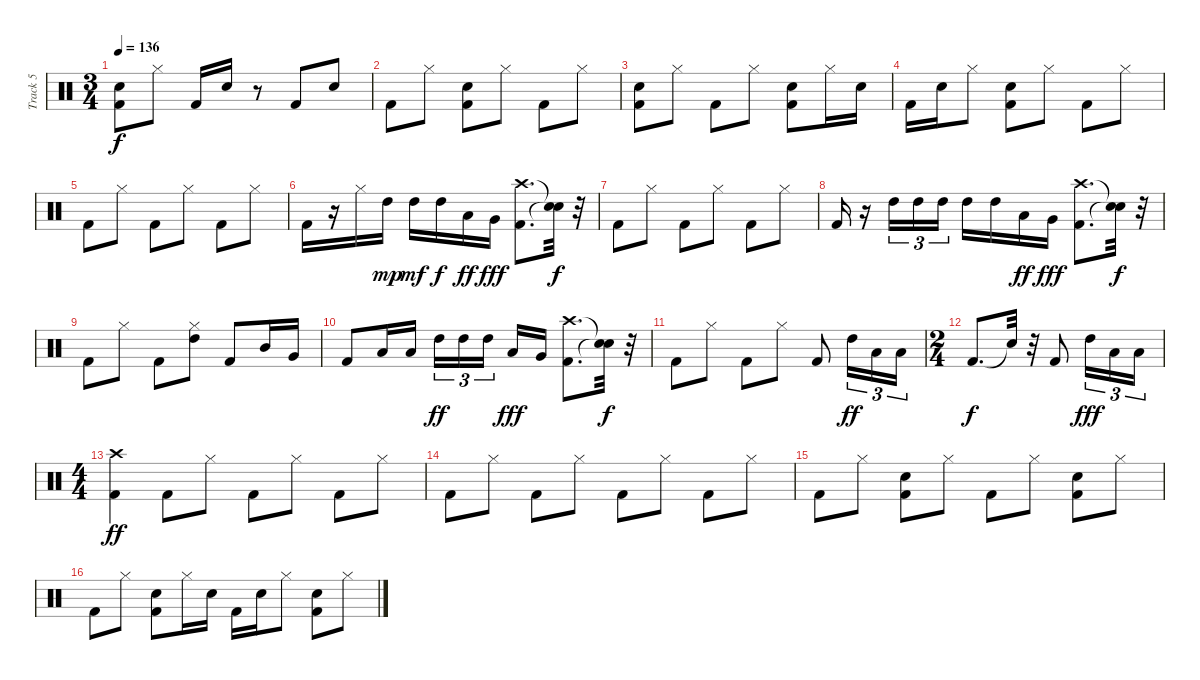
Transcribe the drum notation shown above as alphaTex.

\track ("Track 5" "Track 5") {instrument percussion}
\staff {score}
\articulation defaults
\ts (3 4)
\tempo 136
\clef neutral
\ks c
("Kick (hit) 2" "Hand Clap (hit)").8{dy f} "Hi-Hat (closed)".8 "Kick (hit) 2".16 "Hand Clap (hit)".16 r.8 "Kick (hit) 2".8 "Hand Clap (hit)".8 |
"Kick (hit) 2".8 "Hi-Hat (closed)".8 ("Kick (hit) 2" "Hand Clap (hit)").8 "Hi-Hat (closed)".8 "Kick (hit) 2".8 "Hi-Hat (closed)".8 |
("Kick (hit) 2" "Hand Clap (hit)").8 "Hi-Hat (closed)".8 "Kick (hit) 2".8 "Hi-Hat (closed)".8 ("Kick (hit) 2" "Hand Clap (hit)").8 "Hi-Hat (closed)".16 "Hand Clap (hit)".16 |
"Kick (hit) 2".16 "Hand Clap (hit)".16 "Hi-Hat (closed)".8 ("Kick (hit) 2" "Hand Clap (hit)").8 "Hi-Hat (closed)".8 "Kick (hit) 2".8 "Hi-Hat (closed)".8 |
"Kick (hit) 2".8 "Hi-Hat (closed)".8 "Kick (hit) 2".8 "Hi-Hat (closed)".8 "Kick (hit) 2".8 "Hi-Hat (closed)".8 |
"Kick (hit) 2".16 r.16 "Hi-Hat (closed)".16 "High Tom (hit)".16{dy mp} "High Tom (hit)".16{dy mf} "High Tom (hit)".16{dy f} "Low Tom (hit)".16{dy ff} "Very Low Tom (hit)".16{dy fff} ("Kick (hit) 2" "Crash high (hit)").8{d} ("Snare (hit)"{t} "Snare (hit)"{t}).32{dy f} r.32 |
"Kick (hit) 2".8 "Hi-Hat (closed)".8 "Kick (hit) 2".8 "Hi-Hat (closed)".8 "Kick (hit) 2".8 "Hi-Hat (closed)".8 |
"Kick (hit) 2".16 r.16 "High Tom (hit)".16{tu (3 2)} "High Tom (hit)".16{tu (3 2)} "High Tom (hit)".16{tu (3 2)} "High Tom (hit)".16 "High Tom (hit)".16 "Low Tom (hit)".16{dy ff} "Very Low Tom (hit)".16{dy fff} ("Kick (hit) 2" "Crash high (hit)").8{d} ("Snare (hit)"{t} "Snare (hit)"{t}).32{dy f} r.32 |
"Kick (hit) 2".8 "Hi-Hat (closed)".8 "Kick (hit) 2".8 ("Hi-Hat (closed)" "High Tom (hit)").8 "Kick (hit) 2".8 "Mid Tom (hit)".16 "Very Low Tom (hit)".16 |
"Kick (hit) 2".8 "Low Tom (hit)".16 "Low Floor Tom (hit)".16 "High Tom (hit)".16{tu (3 2) dy ff} "High Tom (hit)".16{tu (3 2)} "High Tom (hit)".16{tu (3 2) beam splitsecondary} "Low Tom (hit)".16{dy fff} "Very Low Tom (hit)".16 ("Kick (hit) 2" "Crash high (hit)").8{d} ("Snare (hit)"{t} "Snare (hit)"{t}).32{dy f} r.32 |
"Kick (hit) 2".8 "Hi-Hat (closed)".8 "Kick (hit) 2".8 "Hi-Hat (closed)".8 "Kick (hit) 2".8 "High Tom (hit)".16{tu (3 2) dy ff} "Low Tom (hit)".16{tu (3 2)} "Low Floor Tom (hit)".16{tu (3 2)} |
\ts (2 4)
"Kick (hit) 2".8{d dy f} "Snare (hit)"{t}.32 r.32 "Kick (hit) 2".8 "High Tom (hit)".16{tu (3 2) dy fff} "Low Tom (hit)".16{tu (3 2)} "Low Floor Tom (hit)".16{tu (3 2)} |
\ts (4 4)
("Kick (hit) 2" "Crash high (hit)").4{dy ff} "Kick (hit) 2".8 "Hi-Hat (closed)".8 "Kick (hit) 2".8 "Hi-Hat (closed)".8 "Kick (hit) 2".8 "Hi-Hat (closed)".8 |
"Kick (hit) 2".8 "Hi-Hat (closed)".8 "Kick (hit) 2".8 "Hi-Hat (closed)".8 "Kick (hit) 2".8 "Hi-Hat (closed)".8 "Kick (hit) 2".8 "Hi-Hat (closed)".8 |
"Kick (hit) 2".8 "Hi-Hat (closed)".8 ("Kick (hit) 2" "Hand Clap (hit)").8 "Hi-Hat (closed)".8 "Kick (hit) 2".8 "Hi-Hat (closed)".8 ("Kick (hit) 2" "Hand Clap (hit)").8 "Hi-Hat (closed)".8 |
"Kick (hit) 2".8 "Hi-Hat (closed)".8 ("Kick (hit) 2" "Hand Clap (hit)").8 "Hi-Hat (closed)".16 "Hand Clap (hit)".16 "Kick (hit) 2".16 "Hand Clap (hit)".16 "Hi-Hat (closed)".8 ("Kick (hit) 2" "Hand Clap (hit)").8 "Hi-Hat (closed)".8
